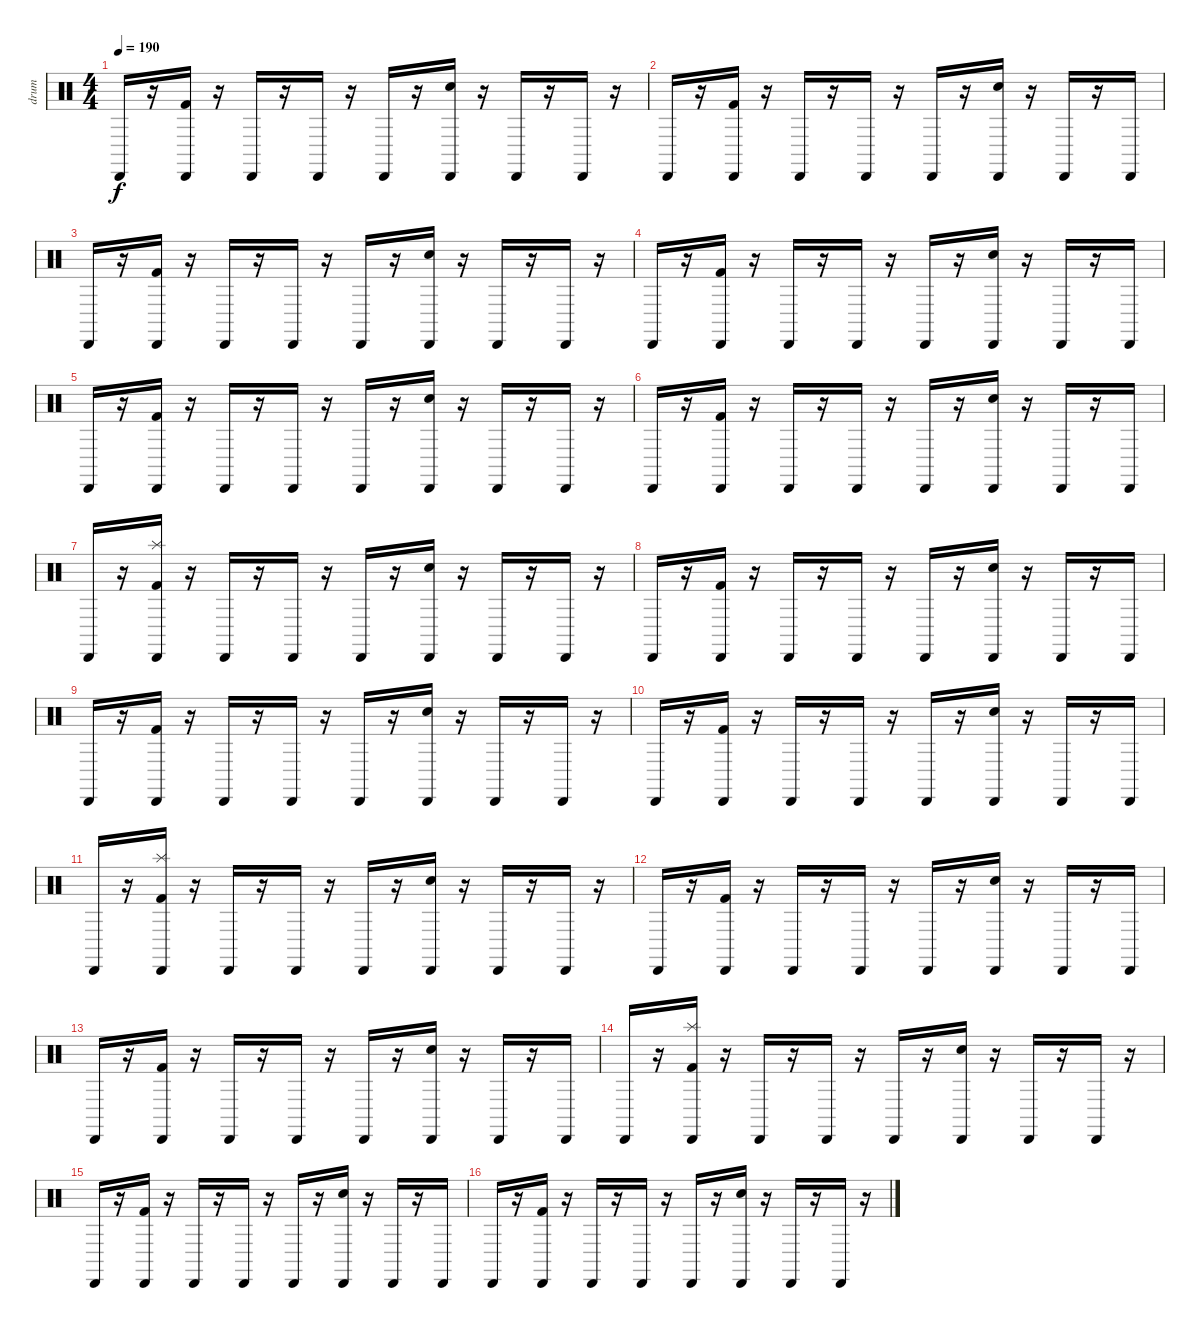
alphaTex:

\track ("drum" "drum") {instrument percussion}
\staff {score}
\articulation defaults
\ts (4 4)
\tempo 190
\clef neutral
\ks c "Cabasa (hit)".16{dy f}
r.16 ("Cabasa (hit)" "Kick (hit) 2").16 r.16 "Cabasa (hit)".16 r.16 "Cabasa (hit)".16 r.16 "Cabasa (hit)".16 r.16 ("Cabasa (hit)" "Snare (hit) 2").16 r.16 "Cabasa (hit)".16 r.16 "Cabasa (hit)".16 r.16 |
"Cabasa (hit)".16 r.16 ("Cabasa (hit)" "Kick (hit) 2").16 r.16 "Cabasa (hit)".16 r.16 "Cabasa (hit)".16 r.16 "Cabasa (hit)".16 r.16 ("Cabasa (hit)" "Snare (hit) 2").16 r.16 "Cabasa (hit)".16 r.16 "Cabasa (hit)".16 |
"Cabasa (hit)".16 r.16 ("Cabasa (hit)" "Kick (hit) 2").16 r.16 "Cabasa (hit)".16 r.16 "Cabasa (hit)".16 r.16 "Cabasa (hit)".16 r.16 ("Cabasa (hit)" "Snare (hit) 2").16 r.16 "Cabasa (hit)".16 r.16 "Cabasa (hit)".16 r.16 |
"Cabasa (hit)".16 r.16 ("Cabasa (hit)" "Kick (hit) 2").16 r.16 "Cabasa (hit)".16 r.16 "Cabasa (hit)".16 r.16 "Cabasa (hit)".16 r.16 ("Cabasa (hit)" "Snare (hit) 2").16 r.16 "Cabasa (hit)".16 r.16 "Cabasa (hit)".16 |
"Cabasa (hit)".16 r.16 ("Cabasa (hit)" "Kick (hit) 2").16 r.16 "Cabasa (hit)".16 r.16 "Cabasa (hit)".16 r.16 "Cabasa (hit)".16 r.16 ("Cabasa (hit)" "Snare (hit) 2").16 r.16 "Cabasa (hit)".16 r.16 "Cabasa (hit)".16 r.16 |
"Cabasa (hit)".16 r.16 ("Cabasa (hit)" "Kick (hit) 2").16 r.16 "Cabasa (hit)".16 r.16 "Cabasa (hit)".16 r.16 "Cabasa (hit)".16 r.16 ("Cabasa (hit)" "Snare (hit) 2").16 r.16 "Cabasa (hit)".16 r.16 "Cabasa (hit)".16 |
"Cabasa (hit)".16 r.16 ("Cabasa (hit)" "Kick (hit) 2" "Splash (hit)").16 r.16 "Cabasa (hit)".16 r.16 "Cabasa (hit)".16 r.16 "Cabasa (hit)".16 r.16 ("Cabasa (hit)" "Snare (hit) 2").16 r.16 "Cabasa (hit)".16 r.16 "Cabasa (hit)".16 r.16 |
"Cabasa (hit)".16 r.16 ("Cabasa (hit)" "Kick (hit) 2").16 r.16 "Cabasa (hit)".16 r.16 "Cabasa (hit)".16 r.16 "Cabasa (hit)".16 r.16 ("Cabasa (hit)" "Snare (hit) 2").16 r.16 "Cabasa (hit)".16 r.16 "Cabasa (hit)".16 |
"Cabasa (hit)".16 r.16 ("Cabasa (hit)" "Kick (hit) 2").16 r.16 "Cabasa (hit)".16 r.16 "Cabasa (hit)".16 r.16 "Cabasa (hit)".16 r.16 ("Cabasa (hit)" "Snare (hit) 2").16 r.16 "Cabasa (hit)".16 r.16 "Cabasa (hit)".16 r.16 |
"Cabasa (hit)".16 r.16 ("Cabasa (hit)" "Kick (hit) 2").16 r.16 "Cabasa (hit)".16 r.16 "Cabasa (hit)".16 r.16 "Cabasa (hit)".16 r.16 ("Cabasa (hit)" "Snare (hit) 2").16 r.16 "Cabasa (hit)".16 r.16 "Cabasa (hit)".16 |
"Cabasa (hit)".16 r.16 ("Cabasa (hit)" "Kick (hit) 2" "Splash (hit)").16 r.16 "Cabasa (hit)".16 r.16 "Cabasa (hit)".16 r.16 "Cabasa (hit)".16 r.16 ("Cabasa (hit)" "Snare (hit) 2").16 r.16 "Cabasa (hit)".16 r.16 "Cabasa (hit)".16 r.16 |
"Cabasa (hit)".16 r.16 ("Cabasa (hit)" "Kick (hit) 2").16 r.16 "Cabasa (hit)".16 r.16 "Cabasa (hit)".16 r.16 "Cabasa (hit)".16 r.16 ("Cabasa (hit)" "Snare (hit) 2").16 r.16 "Cabasa (hit)".16 r.16 "Cabasa (hit)".16 |
"Cabasa (hit)".16 r.16 ("Cabasa (hit)" "Kick (hit) 2").16 r.16 "Cabasa (hit)".16 r.16 "Cabasa (hit)".16 r.16 "Cabasa (hit)".16 r.16 ("Cabasa (hit)" "Snare (hit) 2").16 r.16 "Cabasa (hit)".16 r.16 "Cabasa (hit)".16 |
"Cabasa (hit)".16 r.16 ("Cabasa (hit)" "Kick (hit) 2" "Splash (hit)").16 r.16 "Cabasa (hit)".16 r.16 "Cabasa (hit)".16 r.16 "Cabasa (hit)".16 r.16 ("Cabasa (hit)" "Snare (hit) 2").16 r.16 "Cabasa (hit)".16 r.16 "Cabasa (hit)".16 r.16 |
"Cabasa (hit)".16 r.16 ("Cabasa (hit)" "Kick (hit) 2").16 r.16 "Cabasa (hit)".16 r.16 "Cabasa (hit)".16 r.16 "Cabasa (hit)".16 r.16 ("Cabasa (hit)" "Snare (hit) 2").16 r.16 "Cabasa (hit)".16 r.16 "Cabasa (hit)".16 |
"Cabasa (hit)".16 r.16 ("Cabasa (hit)" "Kick (hit) 2").16 r.16 "Cabasa (hit)".16 r.16 "Cabasa (hit)".16 r.16 "Cabasa (hit)".16 r.16 ("Cabasa (hit)" "Snare (hit) 2").16 r.16 "Cabasa (hit)".16 r.16 "Cabasa (hit)".16 r.16
